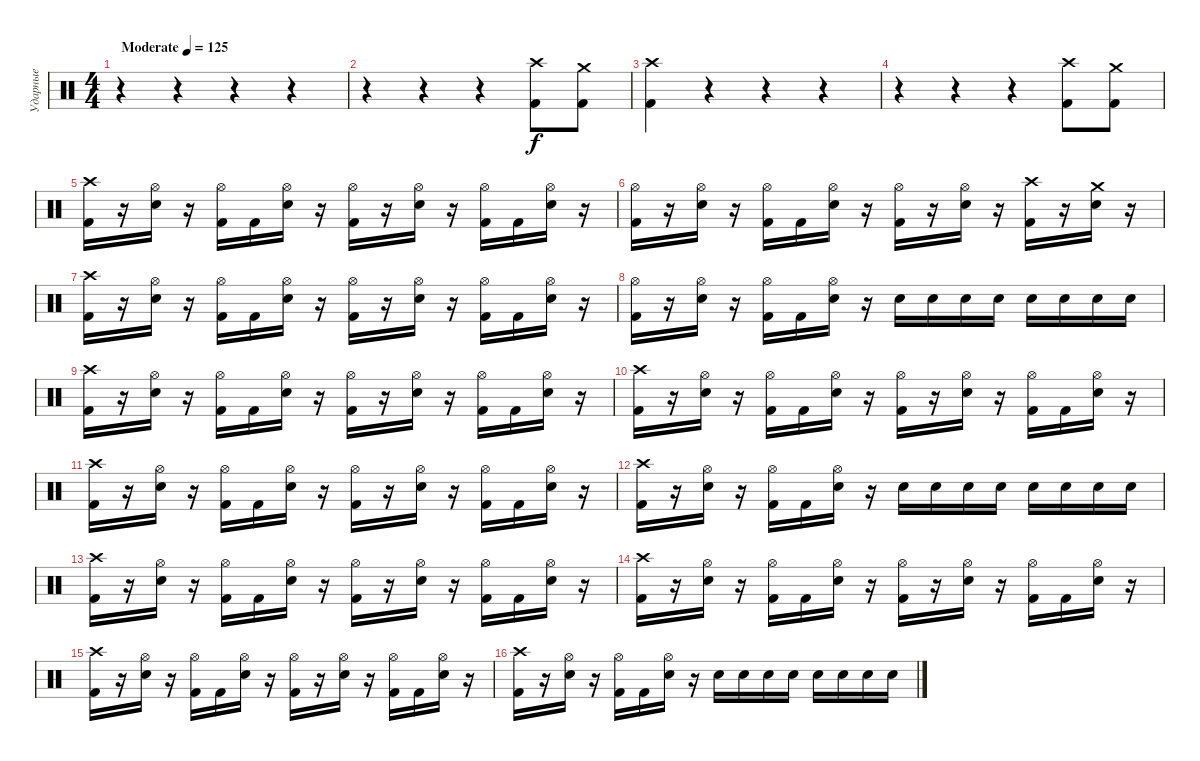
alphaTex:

\track ("Ударные" "Ударные") {instrument percussion}
\staff {score}
\articulation defaults
\ts (4 4)
\tempo (125 "Moderate")
\clef neutral
\ks c
r.4{dy f} r.4 r.4 r.4 |
r.4 r.4 r.4 ("Crash high (hit)" "Kick (hit) 2").8 ("Crash medium (hit)" "Kick (hit) 2").8 |
("Crash high (hit)" "Kick (hit) 2").4 r.4 r.4 r.4 |
r.4 r.4 r.4 ("Crash high (hit)" "Kick (hit) 2").8 ("Crash medium (hit)" "Kick (hit) 2").8 |
("Crash high (hit)" "Kick (hit) 2").16 r.16 ("Hi-Hat (open)" "Snare (hit) 2").16 r.16 ("Hi-Hat (open)" "Kick (hit) 2").16 "Kick (hit) 2".16 ("Hi-Hat (open)" "Snare (hit) 2").16 r.16 ("Hi-Hat (open)" "Kick (hit) 2").16 r.16 ("Hi-Hat (open)" "Snare (hit) 2").16 r.16 ("Hi-Hat (open)" "Kick (hit) 2").16 "Kick (hit) 2".16 ("Hi-Hat (open)" "Snare (hit) 2").16 r.16 |
("Hi-Hat (open)" "Kick (hit) 2").16 r.16 ("Hi-Hat (open)" "Snare (hit) 2").16 r.16 ("Hi-Hat (open)" "Kick (hit) 2").16 "Kick (hit) 2".16 ("Hi-Hat (open)" "Snare (hit) 2").16 r.16 ("Hi-Hat (open)" "Kick (hit) 2").16 r.16 ("Hi-Hat (open)" "Snare (hit) 2").16 r.16 ("Crash high (hit)" "Kick (hit) 2").16 r.16 ("Crash medium (hit)" "Snare (hit) 2").16 r.16 |
("Crash high (hit)" "Kick (hit) 2").16 r.16 ("Hi-Hat (open)" "Snare (hit) 2").16 r.16 ("Hi-Hat (open)" "Kick (hit) 2").16 "Kick (hit) 2".16 ("Hi-Hat (open)" "Snare (hit) 2").16 r.16 ("Hi-Hat (open)" "Kick (hit) 2").16 r.16 ("Hi-Hat (open)" "Snare (hit) 2").16 r.16 ("Hi-Hat (open)" "Kick (hit) 2").16 "Kick (hit) 2".16 ("Hi-Hat (open)" "Snare (hit) 2").16 r.16 |
("Hi-Hat (open)" "Kick (hit) 2").16 r.16 ("Hi-Hat (open)" "Snare (hit) 2").16 r.16 ("Hi-Hat (open)" "Kick (hit) 2").16 "Kick (hit) 2".16 ("Hi-Hat (open)" "Snare (hit) 2").16 r.16 "Snare (hit) 2".16 "Snare (hit) 2".16 "Snare (hit) 2".16 "Snare (hit) 2".16 "Snare (hit) 2".16 "Snare (hit) 2".16 "Snare (hit) 2".16 "Snare (hit) 2".16 |
("Crash high (hit)" "Kick (hit) 2").16 r.16 ("Hi-Hat (open)" "Snare (hit) 2").16 r.16 ("Hi-Hat (open)" "Kick (hit) 2").16 "Kick (hit) 2".16 ("Hi-Hat (open)" "Snare (hit) 2").16 r.16 ("Hi-Hat (open)" "Kick (hit) 2").16 r.16 ("Hi-Hat (open)" "Snare (hit) 2").16 r.16 ("Hi-Hat (open)" "Kick (hit) 2").16 "Kick (hit) 2".16 ("Hi-Hat (open)" "Snare (hit) 2").16 r.16 |
("Crash high (hit)" "Kick (hit) 2").16 r.16 ("Hi-Hat (open)" "Snare (hit) 2").16 r.16 ("Hi-Hat (open)" "Kick (hit) 2").16 "Kick (hit) 2".16 ("Hi-Hat (open)" "Snare (hit) 2").16 r.16 ("Hi-Hat (open)" "Kick (hit) 2").16 r.16 ("Hi-Hat (open)" "Snare (hit) 2").16 r.16 ("Hi-Hat (open)" "Kick (hit) 2").16 "Kick (hit) 2".16 ("Hi-Hat (open)" "Snare (hit) 2").16 r.16 |
("Crash high (hit)" "Kick (hit) 2").16 r.16 ("Hi-Hat (open)" "Snare (hit) 2").16 r.16 ("Hi-Hat (open)" "Kick (hit) 2").16 "Kick (hit) 2".16 ("Hi-Hat (open)" "Snare (hit) 2").16 r.16 ("Hi-Hat (open)" "Kick (hit) 2").16 r.16 ("Hi-Hat (open)" "Snare (hit) 2").16 r.16 ("Hi-Hat (open)" "Kick (hit) 2").16 "Kick (hit) 2".16 ("Hi-Hat (open)" "Snare (hit) 2").16 r.16 |
("Crash high (hit)" "Kick (hit) 2").16 r.16 ("Hi-Hat (open)" "Snare (hit) 2").16 r.16 ("Hi-Hat (open)" "Kick (hit) 2").16 "Kick (hit) 2".16 ("Hi-Hat (open)" "Snare (hit) 2").16 r.16 "Snare (hit) 2".16 "Snare (hit) 2".16 "Snare (hit) 2".16 "Snare (hit) 2".16 "Snare (hit) 2".16 "Snare (hit) 2".16 "Snare (hit) 2".16 "Snare (hit) 2".16 |
("Crash high (hit)" "Kick (hit) 2").16 r.16 ("Hi-Hat (open)" "Snare (hit) 2").16 r.16 ("Hi-Hat (open)" "Kick (hit) 2").16 "Kick (hit) 2".16 ("Hi-Hat (open)" "Snare (hit) 2").16 r.16 ("Hi-Hat (open)" "Kick (hit) 2").16 r.16 ("Hi-Hat (open)" "Snare (hit) 2").16 r.16 ("Hi-Hat (open)" "Kick (hit) 2").16 "Kick (hit) 2".16 ("Hi-Hat (open)" "Snare (hit) 2").16 r.16 |
("Crash high (hit)" "Kick (hit) 2").16 r.16 ("Hi-Hat (open)" "Snare (hit) 2").16 r.16 ("Hi-Hat (open)" "Kick (hit) 2").16 "Kick (hit) 2".16 ("Hi-Hat (open)" "Snare (hit) 2").16 r.16 ("Hi-Hat (open)" "Kick (hit) 2").16 r.16 ("Hi-Hat (open)" "Snare (hit) 2").16 r.16 ("Hi-Hat (open)" "Kick (hit) 2").16 "Kick (hit) 2".16 ("Hi-Hat (open)" "Snare (hit) 2").16 r.16 |
("Crash high (hit)" "Kick (hit) 2").16 r.16 ("Hi-Hat (open)" "Snare (hit) 2").16 r.16 ("Hi-Hat (open)" "Kick (hit) 2").16 "Kick (hit) 2".16 ("Hi-Hat (open)" "Snare (hit) 2").16 r.16 ("Hi-Hat (open)" "Kick (hit) 2").16 r.16 ("Hi-Hat (open)" "Snare (hit) 2").16 r.16 ("Hi-Hat (open)" "Kick (hit) 2").16 "Kick (hit) 2".16 ("Hi-Hat (open)" "Snare (hit) 2").16 r.16 |
("Crash high (hit)" "Kick (hit) 2").16 r.16 ("Hi-Hat (open)" "Snare (hit) 2").16 r.16 ("Hi-Hat (open)" "Kick (hit) 2").16 "Kick (hit) 2".16 ("Hi-Hat (open)" "Snare (hit) 2").16 r.16 "Snare (hit) 2".16 "Snare (hit) 2".16 "Snare (hit) 2".16 "Snare (hit) 2".16 "Snare (hit) 2".16 "Snare (hit) 2".16 "Snare (hit) 2".16 "Snare (hit) 2".16
